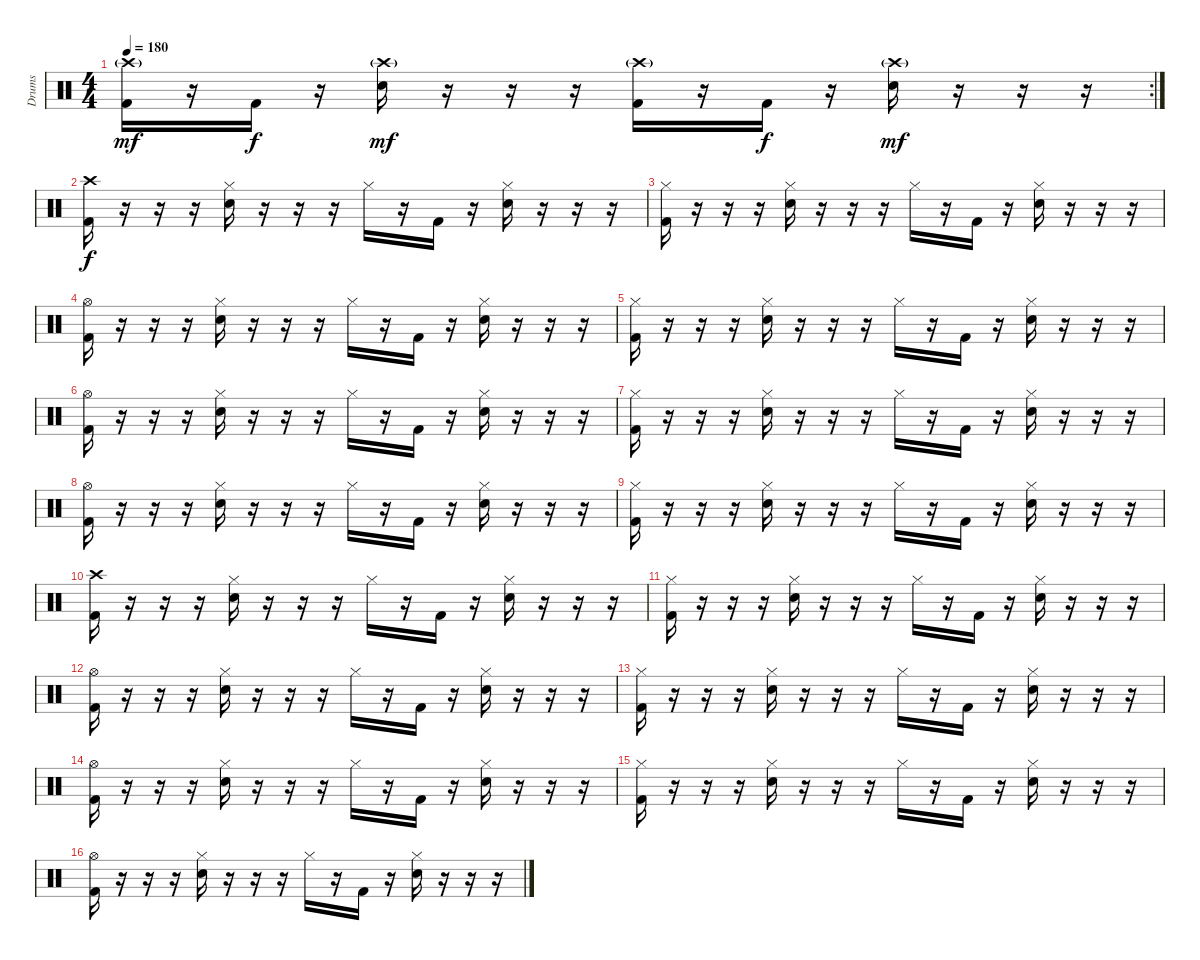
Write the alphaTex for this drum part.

\track ("Drums" "Drums") {instrument percussion}
\staff {score}
\articulation defaults
\rc 2
\ts (4 4)
\tempo 180
\clef neutral
\ks c
("Crash high (hit)"{g} "Kick (hit) 2").16{dy mf} r.16 "Kick (hit) 2".16{dy f} r.16 ("Crash high (hit)"{g} "Snare (hit) 2").16{dy mf} r.16 r.16 r.16 ("Crash high (hit)"{g} "Kick (hit) 2").16 r.16 "Kick (hit) 2".16{dy f} r.16 ("Crash high (hit)"{g} "Snare (hit) 2").16{dy mf} r.16 r.16 r.16 |
("Crash high (hit)" "Kick (hit) 2").16{dy f} r.16 r.16 r.16 ("Hi-Hat (closed)" "Snare (hit) 2").16 r.16 r.16 r.16 "Hi-Hat (closed)".16 r.16 "Kick (hit) 2".16 r.16 ("Hi-Hat (closed)" "Snare (hit) 2").16 r.16 r.16 r.16 |
("Hi-Hat (closed)" "Kick (hit) 2").16 r.16 r.16 r.16 ("Hi-Hat (closed)" "Snare (hit) 2").16 r.16 r.16 r.16 "Hi-Hat (closed)".16 r.16 "Kick (hit) 2".16 r.16 ("Hi-Hat (closed)" "Snare (hit) 2").16 r.16 r.16 r.16 |
("Hi-Hat (open)" "Kick (hit) 2").16 r.16 r.16 r.16 ("Hi-Hat (closed)" "Snare (hit) 2").16 r.16 r.16 r.16 "Hi-Hat (closed)".16 r.16 "Kick (hit) 2".16 r.16 ("Hi-Hat (closed)" "Snare (hit) 2").16 r.16 r.16 r.16 |
("Hi-Hat (closed)" "Kick (hit) 2").16 r.16 r.16 r.16 ("Hi-Hat (closed)" "Snare (hit) 2").16 r.16 r.16 r.16 "Hi-Hat (closed)".16 r.16 "Kick (hit) 2".16 r.16 ("Hi-Hat (closed)" "Snare (hit) 2").16 r.16 r.16 r.16 |
("Hi-Hat (open)" "Kick (hit) 2").16 r.16 r.16 r.16 ("Hi-Hat (closed)" "Snare (hit) 2").16 r.16 r.16 r.16 "Hi-Hat (closed)".16 r.16 "Kick (hit) 2".16 r.16 ("Hi-Hat (closed)" "Snare (hit) 2").16 r.16 r.16 r.16 |
("Hi-Hat (closed)" "Kick (hit) 2").16 r.16 r.16 r.16 ("Hi-Hat (closed)" "Snare (hit) 2").16 r.16 r.16 r.16 "Hi-Hat (closed)".16 r.16 "Kick (hit) 2".16 r.16 ("Hi-Hat (closed)" "Snare (hit) 2").16 r.16 r.16 r.16 |
("Hi-Hat (open)" "Kick (hit) 2").16 r.16 r.16 r.16 ("Hi-Hat (closed)" "Snare (hit) 2").16 r.16 r.16 r.16 "Hi-Hat (closed)".16 r.16 "Kick (hit) 2".16 r.16 ("Hi-Hat (closed)" "Snare (hit) 2").16 r.16 r.16 r.16 |
("Hi-Hat (closed)" "Kick (hit) 2").16 r.16 r.16 r.16 ("Hi-Hat (closed)" "Snare (hit) 2").16 r.16 r.16 r.16 "Hi-Hat (closed)".16 r.16 "Kick (hit) 2".16 r.16 ("Hi-Hat (closed)" "Snare (hit) 2").16 r.16 r.16 r.16 |
("Crash high (hit)" "Kick (hit) 2").16 r.16 r.16 r.16 ("Hi-Hat (closed)" "Snare (hit) 2").16 r.16 r.16 r.16 "Hi-Hat (closed)".16 r.16 "Kick (hit) 2".16 r.16 ("Hi-Hat (closed)" "Snare (hit) 2").16 r.16 r.16 r.16 |
("Hi-Hat (closed)" "Kick (hit) 2").16 r.16 r.16 r.16 ("Hi-Hat (closed)" "Snare (hit) 2").16 r.16 r.16 r.16 "Hi-Hat (closed)".16 r.16 "Kick (hit) 2".16 r.16 ("Hi-Hat (closed)" "Snare (hit) 2").16 r.16 r.16 r.16 |
("Hi-Hat (open)" "Kick (hit) 2").16 r.16 r.16 r.16 ("Hi-Hat (closed)" "Snare (hit) 2").16 r.16 r.16 r.16 "Hi-Hat (closed)".16 r.16 "Kick (hit) 2".16 r.16 ("Hi-Hat (closed)" "Snare (hit) 2").16 r.16 r.16 r.16 |
("Hi-Hat (closed)" "Kick (hit) 2").16 r.16 r.16 r.16 ("Hi-Hat (closed)" "Snare (hit) 2").16 r.16 r.16 r.16 "Hi-Hat (closed)".16 r.16 "Kick (hit) 2".16 r.16 ("Hi-Hat (closed)" "Snare (hit) 2").16 r.16 r.16 r.16 |
("Hi-Hat (open)" "Kick (hit) 2").16 r.16 r.16 r.16 ("Hi-Hat (closed)" "Snare (hit) 2").16 r.16 r.16 r.16 "Hi-Hat (closed)".16 r.16 "Kick (hit) 2".16 r.16 ("Hi-Hat (closed)" "Snare (hit) 2").16 r.16 r.16 r.16 |
("Hi-Hat (closed)" "Kick (hit) 2").16 r.16 r.16 r.16 ("Hi-Hat (closed)" "Snare (hit) 2").16 r.16 r.16 r.16 "Hi-Hat (closed)".16 r.16 "Kick (hit) 2".16 r.16 ("Hi-Hat (closed)" "Snare (hit) 2").16 r.16 r.16 r.16 |
("Hi-Hat (open)" "Kick (hit) 2").16 r.16 r.16 r.16 ("Hi-Hat (closed)" "Snare (hit) 2").16 r.16 r.16 r.16 "Hi-Hat (closed)".16 r.16 "Kick (hit) 2".16 r.16 ("Hi-Hat (closed)" "Snare (hit) 2").16 r.16 r.16 r.16
